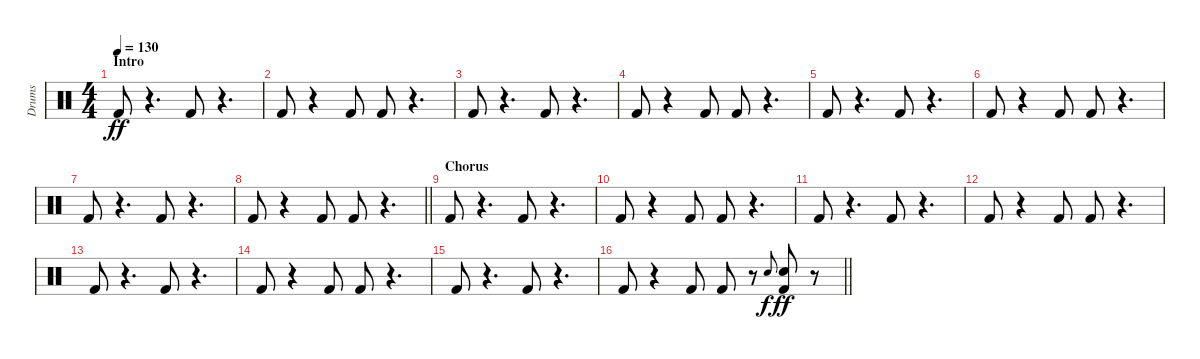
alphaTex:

\track ("Drums" "Drums") {instrument percussion}
\staff {score}
\articulation defaults
\ts (4 4)
\section ("" "Intro")
\tempo 130
\clef neutral
\ks c "Kick (hit) 2".8{dy ff}
r.4{d} "Kick (hit) 2".8 r.4{d} |
"Kick (hit) 2".8 r.4 "Kick (hit) 2".8 "Kick (hit) 2".8 r.4{d} |
"Kick (hit) 2".8 r.4{d} "Kick (hit) 2".8 r.4{d} |
"Kick (hit) 2".8 r.4 "Kick (hit) 2".8 "Kick (hit) 2".8 r.4{d} |
"Kick (hit) 2".8 r.4{d} "Kick (hit) 2".8 r.4{d} |
"Kick (hit) 2".8 r.4 "Kick (hit) 2".8 "Kick (hit) 2".8 r.4{d} |
"Kick (hit) 2".8 r.4{d} "Kick (hit) 2".8 r.4{d} |
\barLineRight lightlight "Kick (hit) 2".8
r.4 "Kick (hit) 2".8 "Kick (hit) 2".8 r.4{d} |
\section ("" "Chorus")
"Kick (hit) 2".8 r.4{d} "Kick (hit) 2".8 r.4{d} |
"Kick (hit) 2".8 r.4 "Kick (hit) 2".8 "Kick (hit) 2".8 r.4{d} |
"Kick (hit) 2".8 r.4{d} "Kick (hit) 2".8 r.4{d} |
"Kick (hit) 2".8 r.4 "Kick (hit) 2".8 "Kick (hit) 2".8 r.4{d} |
"Kick (hit) 2".8 r.4{d} "Kick (hit) 2".8 r.4{d} |
"Kick (hit) 2".8 r.4 "Kick (hit) 2".8 "Kick (hit) 2".8 r.4{d} |
"Kick (hit) 2".8 r.4{d} "Kick (hit) 2".8 r.4{d} |
\barLineRight lightlight "Kick (hit) 2".8
r.4 "Kick (hit) 2".8 "Kick (hit) 2".8 r.8 "Electric Snare (hit)".8{gr onbeat dy f} ("Electric Snare (hit)" "Kick (hit) 2").8{dy ff} r.8
